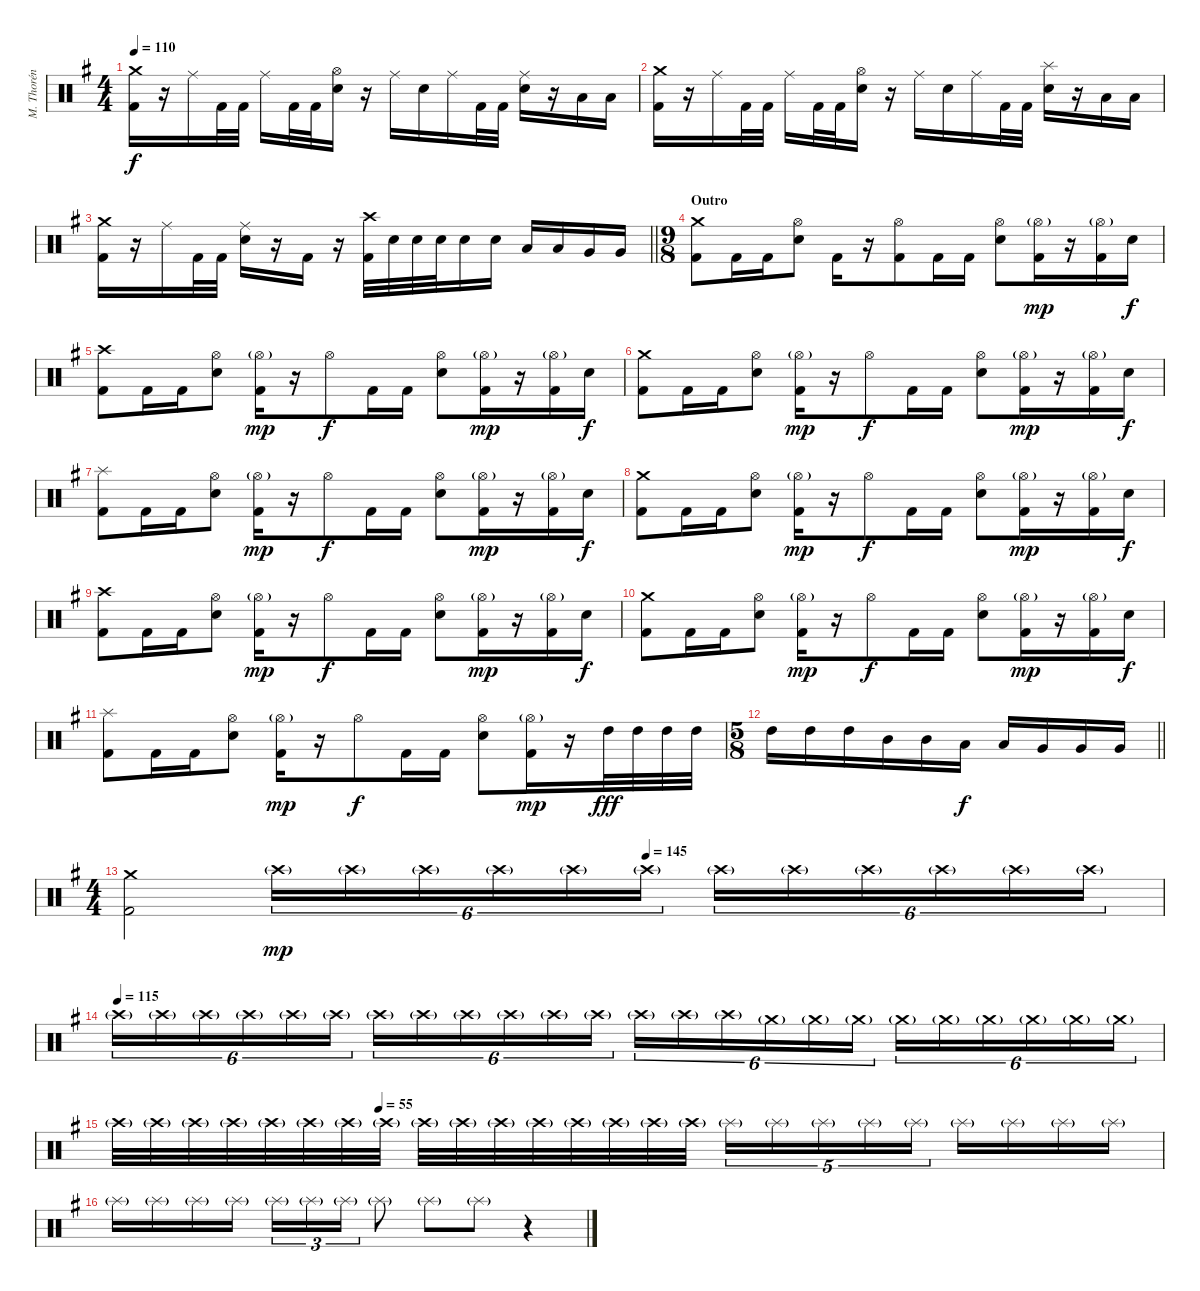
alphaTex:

\track ("M. Thorén (Drums)" "M. Thorén ") {instrument percussion}
\staff {score}
\articulation defaults
\ts (4 4)
\tempo 110
\clef neutral
\ks eminor
("Crash medium (hit)" "Kick (hit) 2").16{dy f} r.16 "Ride (middle)".16 "Kick (hit) 2".32 "Kick (hit) 2".32 "Ride (middle)".16 "Kick (hit) 2".32 "Kick (hit) 2".32 ("Hi-Hat (open)" "Electric Snare (hit)").16 r.16 "Ride (middle)".16 "Electric Snare (hit)".16 "Ride (middle)".16 "Kick (hit) 2".32 "Kick (hit) 2".32 ("Ride (middle)" "Electric Snare (hit)").16 r.16 "Low Tom (hit)".16 "Low Tom (hit)".16 |
("Crash medium (hit)" "Kick (hit) 2").16 r.16 "Ride (middle)".16 "Kick (hit) 2".32 "Kick (hit) 2".32 "Ride (middle)".16 "Kick (hit) 2".32 "Kick (hit) 2".32 ("Hi-Hat (open)" "Electric Snare (hit)").16 r.16 "Ride (middle)".16 "Electric Snare (hit)".16 "Ride (middle)".16 "Kick (hit) 2".32 "Kick (hit) 2".32 ("Splash (hit)" "Electric Snare (hit)").16 r.16 "Low Tom (hit)".16 "Low Tom (hit)".16 |
\barLineRight lightlight
("Crash medium (hit)" "Kick (hit) 2").16 r.16 "Ride (middle)".16 "Kick (hit) 2".32 "Kick (hit) 2".32 ("Ride (middle)" "Electric Snare (hit)").16 r.16 "Kick (hit) 2".16 r.16 ("Crash high (hit)" "Kick (hit) 2").32 "Electric Snare (hit)".32 "Electric Snare (hit)".32 "Electric Snare (hit)".32 "Electric Snare (hit)".16 "Electric Snare (hit)".16 "Low Tom (hit)".16 "Low Tom (hit)".16 "Very Low Tom (hit)".16 "Very Low Tom (hit)".16 |
\ts (9 8)
\section ("" "Outro")
("Crash medium (hit)" "Kick (hit) 2").8 "Kick (hit) 2".16 "Kick (hit) 2".16 ("Hi-Hat (open)" "Electric Snare (hit)").8 "Kick (hit) 2".16 r.16 ("Hi-Hat (open)" "Kick (hit) 2").8 "Kick (hit) 2".16 "Kick (hit) 2".16 ("Hi-Hat (open)" "Electric Snare (hit)").8 ("Hi-Hat (open)"{g} "Kick (hit) 2").16{dy mp} r.16 ("Hi-Hat (open)"{g} "Kick (hit) 2").16 "Electric Snare (hit)".16{dy f} |
("Crash high (hit)" "Kick (hit) 2").8 "Kick (hit) 2".16 "Kick (hit) 2".16 ("Hi-Hat (open)" "Electric Snare (hit)").8 ("Hi-Hat (open)"{g} "Kick (hit) 2").16{dy mp} r.16 "Hi-Hat (open)".8{dy f} "Kick (hit) 2".16 "Kick (hit) 2".16 ("Hi-Hat (open)" "Electric Snare (hit)").8 ("Hi-Hat (open)"{g} "Kick (hit) 2").16{dy mp} r.16 ("Hi-Hat (open)"{g} "Kick (hit) 2").16 "Electric Snare (hit)".16{dy f} |
("Crash medium (hit)" "Kick (hit) 2").8 "Kick (hit) 2".16 "Kick (hit) 2".16 ("Hi-Hat (open)" "Electric Snare (hit)").8 ("Hi-Hat (open)"{g} "Kick (hit) 2").16{dy mp} r.16 "Hi-Hat (open)".8{dy f} "Kick (hit) 2".16 "Kick (hit) 2".16 ("Hi-Hat (open)" "Electric Snare (hit)").8 ("Hi-Hat (open)"{g} "Kick (hit) 2").16{dy mp} r.16 ("Hi-Hat (open)"{g} "Kick (hit) 2").16 "Electric Snare (hit)".16{dy f} |
("Splash (hit)" "Kick (hit) 2").8 "Kick (hit) 2".16 "Kick (hit) 2".16 ("Hi-Hat (open)" "Electric Snare (hit)").8 ("Hi-Hat (open)"{g} "Kick (hit) 2").16{dy mp} r.16 "Hi-Hat (open)".8{dy f} "Kick (hit) 2".16 "Kick (hit) 2".16 ("Hi-Hat (open)" "Electric Snare (hit)").8 ("Hi-Hat (open)"{g} "Kick (hit) 2").16{dy mp} r.16 ("Hi-Hat (open)"{g} "Kick (hit) 2").16 "Electric Snare (hit)".16{dy f} |
("Crash medium (hit)" "Kick (hit) 2").8 "Kick (hit) 2".16 "Kick (hit) 2".16 ("Hi-Hat (open)" "Electric Snare (hit)").8 ("Hi-Hat (open)"{g} "Kick (hit) 2").16{dy mp} r.16 "Hi-Hat (open)".8{dy f} "Kick (hit) 2".16 "Kick (hit) 2".16 ("Hi-Hat (open)" "Electric Snare (hit)").8 ("Hi-Hat (open)"{g} "Kick (hit) 2").16{dy mp} r.16 ("Hi-Hat (open)"{g} "Kick (hit) 2").16 "Electric Snare (hit)".16{dy f} |
("Crash high (hit)" "Kick (hit) 2").8 "Kick (hit) 2".16 "Kick (hit) 2".16 ("Hi-Hat (open)" "Electric Snare (hit)").8 ("Hi-Hat (open)"{g} "Kick (hit) 2").16{dy mp} r.16 "Hi-Hat (open)".8{dy f} "Kick (hit) 2".16 "Kick (hit) 2".16 ("Hi-Hat (open)" "Electric Snare (hit)").8 ("Hi-Hat (open)"{g} "Kick (hit) 2").16{dy mp} r.16 ("Hi-Hat (open)"{g} "Kick (hit) 2").16 "Electric Snare (hit)".16{dy f} |
("Crash medium (hit)" "Kick (hit) 2").8 "Kick (hit) 2".16 "Kick (hit) 2".16 ("Hi-Hat (open)" "Electric Snare (hit)").8 ("Hi-Hat (open)"{g} "Kick (hit) 2").16{dy mp} r.16 "Hi-Hat (open)".8{dy f} "Kick (hit) 2".16 "Kick (hit) 2".16 ("Hi-Hat (open)" "Electric Snare (hit)").8 ("Hi-Hat (open)"{g} "Kick (hit) 2").16{dy mp} r.16 ("Hi-Hat (open)"{g} "Kick (hit) 2").16 "Electric Snare (hit)".16{dy f} |
("Splash (hit)" "Kick (hit) 2").8 "Kick (hit) 2".16 "Kick (hit) 2".16 ("Hi-Hat (open)" "Electric Snare (hit)").8 ("Hi-Hat (open)"{g} "Kick (hit) 2").16{dy mp} r.16 "Hi-Hat (open)".8{dy f} "Kick (hit) 2".16 "Kick (hit) 2".16 ("Hi-Hat (open)" "Electric Snare (hit)").8 ("Hi-Hat (open)"{g} "Kick (hit) 2").16{dy mp} r.16 "High Tom (hit)".32{dy fff} "High Tom (hit)".32 "High Tom (hit)".32 "High Tom (hit)".32 |
\ts (5 8)
\barLineRight lightlight "High Tom (hit)".16 "High Tom (hit)".16 "High Tom (hit)".16 "Mid Tom (hit)".16 "Mid Tom (hit)".16 "Low Tom (hit)".16{dy f} "Low Tom (hit)".16 "Very Low Tom (hit)".16 "Very Low Tom (hit)".16 "Very Low Tom (hit)".16
|
\ts (4 4)
\tempo (145 0.5)
("Crash medium (hit)" "Kick (hit) 2").2 "Crash high (hit)"{g}.16{tu (6 4) dy mp volume 5} "Crash high (hit)"{g}.16{tu (6 4) volume 10} "Crash high (hit)"{g}.16{tu (6 4)} "Crash high (hit)"{g}.16{tu (6 4)} "Crash high (hit)"{g}.16{tu (6 4)} "Crash high (hit)"{g}.16{tu (6 4)} "Crash high (hit)"{g}.16{tu (6 4)} "Crash high (hit)"{g}.16{tu (6 4)} "Crash high (hit)"{g}.16{tu (6 4)} "Crash high (hit)"{g}.16{tu (6 4)} "Crash high (hit)"{g}.16{tu (6 4)} "Crash high (hit)"{g}.16{tu (6 4)} |
\tempo (115)
"Crash high (hit)"{g}.16{tu (6 4)} "Crash high (hit)"{g}.16{tu (6 4)} "Crash high (hit)"{g}.16{tu (6 4)} "Crash high (hit)"{g}.16{tu (6 4) volume 5} "Crash high (hit)"{g}.16{tu (6 4) volume 9} "Crash high (hit)"{g}.16{tu (6 4)} "Crash high (hit)"{g}.16{tu (6 4)} "Crash high (hit)"{g}.16{tu (6 4)} "Crash high (hit)"{g}.16{tu (6 4)} "Crash high (hit)"{g}.16{tu (6 4)} "Crash high (hit)"{g}.16{tu (6 4)} "Crash high (hit)"{g}.16{tu (6 4)} "Crash high (hit)"{g}.16{tu (6 4)} "Crash high (hit)"{g}.16{tu (6 4)} "Crash high (hit)"{g}.16{tu (6 4)} "Crash medium (hit)"{g}.16{tu (6 4)} "Crash medium (hit)"{g}.16{tu (6 4)} "Crash medium (hit)"{g}.16{tu (6 4)} "Crash medium (hit)"{g}.16{tu (6 4)} "Crash medium (hit)"{g}.16{tu (6 4)} "Crash medium (hit)"{g}.16{tu (6 4)} "Crash medium (hit)"{g}.16{tu (6 4)} "Crash medium (hit)"{g}.16{tu (6 4)} "Crash medium (hit)"{g}.16{tu (6 4)} |
\tempo (55 0.25)
"Crash high (hit)"{g}.32{volume 5} "Crash high (hit)"{g}.32{volume 12} "Crash high (hit)"{g}.32 "Crash high (hit)"{g}.32 "Crash high (hit)"{g}.32 "Crash high (hit)"{g}.32 "Crash high (hit)"{g}.32 "Crash high (hit)"{g}.32 "Crash high (hit)"{g}.32 "Crash high (hit)"{g}.32 "Crash high (hit)"{g}.32 "Crash high (hit)"{g}.32 "Crash high (hit)"{g}.32 "Crash high (hit)"{g}.32 "Crash high (hit)"{g}.32 "Crash high (hit)"{g}.32 "Splash (hit)"{g}.16{tu (5 4)} "Splash (hit)"{g}.16{tu (5 4)} "Splash (hit)"{g}.16{tu (5 4) volume 0} "Splash (hit)"{g}.16{tu (5 4)} "Splash (hit)"{g}.16{tu (5 4)} "Splash (hit)"{g}.16 "Splash (hit)"{g}.16 "Splash (hit)"{g}.16 "Splash (hit)"{g}.16 |
"Splash (hit)"{g}.16 "Splash (hit)"{g}.16 "Splash (hit)"{g}.16 "Splash (hit)"{g}.16 "Splash (hit)"{g}.16{tu (3 2)} "Splash (hit)"{g}.16{tu (3 2)} "Splash (hit)"{g}.16{tu (3 2)} "Splash (hit)"{g}.8 "Splash (hit)"{g}.8 "Splash (hit)"{g}.8 r.4
